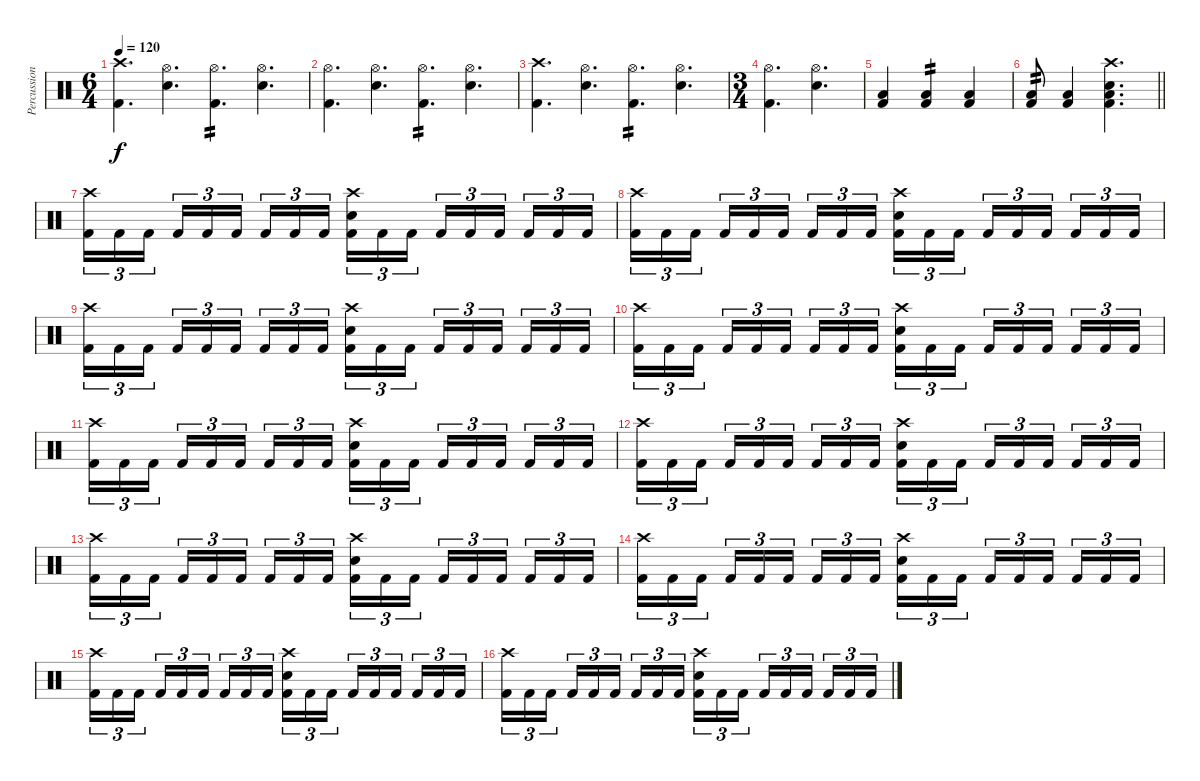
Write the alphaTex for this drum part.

\track ("Percussion" "Percussion") {instrument percussion}
\staff {score}
\articulation defaults
\ts (6 4)
\tempo 120
\clef neutral
\ks c
("Crash high (hit)" "Kick (hit) 2").4{d dy f} ("Hi-Hat (open)" "Electric Snare (hit)").4{d} ("Hi-Hat (open)" "Kick (hit) 2").4{d tp 2} ("Hi-Hat (open)" "Electric Snare (hit)").4{d} |
("Hi-Hat (open)" "Kick (hit) 2").4{d} ("Hi-Hat (open)" "Electric Snare (hit)").4{d} ("Hi-Hat (open)" "Kick (hit) 2").4{d tp 2} ("Hi-Hat (open)" "Electric Snare (hit)").4{d} |
("Crash high (hit)" "Kick (hit) 2").4{d} ("Hi-Hat (open)" "Electric Snare (hit)").4{d} ("Hi-Hat (open)" "Kick (hit) 2").4{d tp 2} ("Hi-Hat (open)" "Electric Snare (hit)").4{d} |
\ts (3 4)
("Hi-Hat (open)" "Kick (hit) 2").4{d} ("Hi-Hat (open)" "Electric Snare (hit)").4{d} |
("Low Floor Tom (hit)" "Kick (hit) 2").4 ("Low Floor Tom (hit)" "Kick (hit) 2").4{tp 2} ("Low Floor Tom (hit)" "Kick (hit) 2").4 |
\barLineRight lightlight
("Low Floor Tom (hit)" "Kick (hit) 2").8{tp 2} ("Low Floor Tom (hit)" "Kick (hit) 2").4 ("Crash high (hit)" "Low Floor Tom (hit)" "Electric Snare (hit)" "Kick (hit) 2").4{d} |
("Crash high (hit)" "Kick (hit) 2").16{tu (3 2)} "Kick (hit) 2".16{tu (3 2)} "Kick (hit) 2".16{tu (3 2) beam splitsecondary} "Kick (hit) 2".16{tu (3 2)} "Kick (hit) 2".16{tu (3 2)} "Kick (hit) 2".16{tu (3 2)} "Kick (hit) 2".16{tu (3 2)} "Kick (hit) 2".16{tu (3 2)} "Kick (hit) 2".16{tu (3 2) beam splitsecondary} ("Electric Snare (hit)" "Crash high (hit)" "Kick (hit) 2").16{tu (3 2)} "Kick (hit) 2".16{tu (3 2)} "Kick (hit) 2".16{tu (3 2)} "Kick (hit) 2".16{tu (3 2)} "Kick (hit) 2".16{tu (3 2)} "Kick (hit) 2".16{tu (3 2) beam splitsecondary} "Kick (hit) 2".16{tu (3 2)} "Kick (hit) 2".16{tu (3 2)} "Kick (hit) 2".16{tu (3 2)} |
("Crash high (hit)" "Kick (hit) 2").16{tu (3 2)} "Kick (hit) 2".16{tu (3 2)} "Kick (hit) 2".16{tu (3 2) beam splitsecondary} "Kick (hit) 2".16{tu (3 2)} "Kick (hit) 2".16{tu (3 2)} "Kick (hit) 2".16{tu (3 2)} "Kick (hit) 2".16{tu (3 2)} "Kick (hit) 2".16{tu (3 2)} "Kick (hit) 2".16{tu (3 2) beam splitsecondary} ("Electric Snare (hit)" "Crash high (hit)" "Kick (hit) 2").16{tu (3 2)} "Kick (hit) 2".16{tu (3 2)} "Kick (hit) 2".16{tu (3 2)} "Kick (hit) 2".16{tu (3 2)} "Kick (hit) 2".16{tu (3 2)} "Kick (hit) 2".16{tu (3 2) beam splitsecondary} "Kick (hit) 2".16{tu (3 2)} "Kick (hit) 2".16{tu (3 2)} "Kick (hit) 2".16{tu (3 2)} |
("Crash high (hit)" "Kick (hit) 2").16{tu (3 2)} "Kick (hit) 2".16{tu (3 2)} "Kick (hit) 2".16{tu (3 2) beam splitsecondary} "Kick (hit) 2".16{tu (3 2)} "Kick (hit) 2".16{tu (3 2)} "Kick (hit) 2".16{tu (3 2)} "Kick (hit) 2".16{tu (3 2)} "Kick (hit) 2".16{tu (3 2)} "Kick (hit) 2".16{tu (3 2) beam splitsecondary} ("Electric Snare (hit)" "Crash high (hit)" "Kick (hit) 2").16{tu (3 2)} "Kick (hit) 2".16{tu (3 2)} "Kick (hit) 2".16{tu (3 2)} "Kick (hit) 2".16{tu (3 2)} "Kick (hit) 2".16{tu (3 2)} "Kick (hit) 2".16{tu (3 2) beam splitsecondary} "Kick (hit) 2".16{tu (3 2)} "Kick (hit) 2".16{tu (3 2)} "Kick (hit) 2".16{tu (3 2)} |
("Crash high (hit)" "Kick (hit) 2").16{tu (3 2)} "Kick (hit) 2".16{tu (3 2)} "Kick (hit) 2".16{tu (3 2) beam splitsecondary} "Kick (hit) 2".16{tu (3 2)} "Kick (hit) 2".16{tu (3 2)} "Kick (hit) 2".16{tu (3 2)} "Kick (hit) 2".16{tu (3 2)} "Kick (hit) 2".16{tu (3 2)} "Kick (hit) 2".16{tu (3 2) beam splitsecondary} ("Electric Snare (hit)" "Crash high (hit)" "Kick (hit) 2").16{tu (3 2)} "Kick (hit) 2".16{tu (3 2)} "Kick (hit) 2".16{tu (3 2)} "Kick (hit) 2".16{tu (3 2)} "Kick (hit) 2".16{tu (3 2)} "Kick (hit) 2".16{tu (3 2) beam splitsecondary} "Kick (hit) 2".16{tu (3 2)} "Kick (hit) 2".16{tu (3 2)} "Kick (hit) 2".16{tu (3 2)} |
("Crash high (hit)" "Kick (hit) 2").16{tu (3 2)} "Kick (hit) 2".16{tu (3 2)} "Kick (hit) 2".16{tu (3 2) beam splitsecondary} "Kick (hit) 2".16{tu (3 2)} "Kick (hit) 2".16{tu (3 2)} "Kick (hit) 2".16{tu (3 2)} "Kick (hit) 2".16{tu (3 2)} "Kick (hit) 2".16{tu (3 2)} "Kick (hit) 2".16{tu (3 2) beam splitsecondary} ("Electric Snare (hit)" "Crash high (hit)" "Kick (hit) 2").16{tu (3 2)} "Kick (hit) 2".16{tu (3 2)} "Kick (hit) 2".16{tu (3 2)} "Kick (hit) 2".16{tu (3 2)} "Kick (hit) 2".16{tu (3 2)} "Kick (hit) 2".16{tu (3 2) beam splitsecondary} "Kick (hit) 2".16{tu (3 2)} "Kick (hit) 2".16{tu (3 2)} "Kick (hit) 2".16{tu (3 2)} |
("Crash high (hit)" "Kick (hit) 2").16{tu (3 2)} "Kick (hit) 2".16{tu (3 2)} "Kick (hit) 2".16{tu (3 2) beam splitsecondary} "Kick (hit) 2".16{tu (3 2)} "Kick (hit) 2".16{tu (3 2)} "Kick (hit) 2".16{tu (3 2)} "Kick (hit) 2".16{tu (3 2)} "Kick (hit) 2".16{tu (3 2)} "Kick (hit) 2".16{tu (3 2) beam splitsecondary} ("Electric Snare (hit)" "Crash high (hit)" "Kick (hit) 2").16{tu (3 2)} "Kick (hit) 2".16{tu (3 2)} "Kick (hit) 2".16{tu (3 2)} "Kick (hit) 2".16{tu (3 2)} "Kick (hit) 2".16{tu (3 2)} "Kick (hit) 2".16{tu (3 2) beam splitsecondary} "Kick (hit) 2".16{tu (3 2)} "Kick (hit) 2".16{tu (3 2)} "Kick (hit) 2".16{tu (3 2)} |
("Crash high (hit)" "Kick (hit) 2").16{tu (3 2)} "Kick (hit) 2".16{tu (3 2)} "Kick (hit) 2".16{tu (3 2) beam splitsecondary} "Kick (hit) 2".16{tu (3 2)} "Kick (hit) 2".16{tu (3 2)} "Kick (hit) 2".16{tu (3 2)} "Kick (hit) 2".16{tu (3 2)} "Kick (hit) 2".16{tu (3 2)} "Kick (hit) 2".16{tu (3 2) beam splitsecondary} ("Electric Snare (hit)" "Crash high (hit)" "Kick (hit) 2").16{tu (3 2)} "Kick (hit) 2".16{tu (3 2)} "Kick (hit) 2".16{tu (3 2)} "Kick (hit) 2".16{tu (3 2)} "Kick (hit) 2".16{tu (3 2)} "Kick (hit) 2".16{tu (3 2) beam splitsecondary} "Kick (hit) 2".16{tu (3 2)} "Kick (hit) 2".16{tu (3 2)} "Kick (hit) 2".16{tu (3 2)} |
("Crash high (hit)" "Kick (hit) 2").16{tu (3 2)} "Kick (hit) 2".16{tu (3 2)} "Kick (hit) 2".16{tu (3 2) beam splitsecondary} "Kick (hit) 2".16{tu (3 2)} "Kick (hit) 2".16{tu (3 2)} "Kick (hit) 2".16{tu (3 2)} "Kick (hit) 2".16{tu (3 2)} "Kick (hit) 2".16{tu (3 2)} "Kick (hit) 2".16{tu (3 2) beam splitsecondary} ("Electric Snare (hit)" "Crash high (hit)" "Kick (hit) 2").16{tu (3 2)} "Kick (hit) 2".16{tu (3 2)} "Kick (hit) 2".16{tu (3 2)} "Kick (hit) 2".16{tu (3 2)} "Kick (hit) 2".16{tu (3 2)} "Kick (hit) 2".16{tu (3 2) beam splitsecondary} "Kick (hit) 2".16{tu (3 2)} "Kick (hit) 2".16{tu (3 2)} "Kick (hit) 2".16{tu (3 2)} |
("Crash high (hit)" "Kick (hit) 2").16{tu (3 2)} "Kick (hit) 2".16{tu (3 2)} "Kick (hit) 2".16{tu (3 2) beam splitsecondary} "Kick (hit) 2".16{tu (3 2)} "Kick (hit) 2".16{tu (3 2)} "Kick (hit) 2".16{tu (3 2)} "Kick (hit) 2".16{tu (3 2)} "Kick (hit) 2".16{tu (3 2)} "Kick (hit) 2".16{tu (3 2) beam splitsecondary} ("Electric Snare (hit)" "Crash high (hit)" "Kick (hit) 2").16{tu (3 2)} "Kick (hit) 2".16{tu (3 2)} "Kick (hit) 2".16{tu (3 2)} "Kick (hit) 2".16{tu (3 2)} "Kick (hit) 2".16{tu (3 2)} "Kick (hit) 2".16{tu (3 2) beam splitsecondary} "Kick (hit) 2".16{tu (3 2)} "Kick (hit) 2".16{tu (3 2)} "Kick (hit) 2".16{tu (3 2)} |
("Crash high (hit)" "Kick (hit) 2").16{tu (3 2)} "Kick (hit) 2".16{tu (3 2)} "Kick (hit) 2".16{tu (3 2) beam splitsecondary} "Kick (hit) 2".16{tu (3 2)} "Kick (hit) 2".16{tu (3 2)} "Kick (hit) 2".16{tu (3 2)} "Kick (hit) 2".16{tu (3 2)} "Kick (hit) 2".16{tu (3 2)} "Kick (hit) 2".16{tu (3 2) beam splitsecondary} ("Electric Snare (hit)" "Crash high (hit)" "Kick (hit) 2").16{tu (3 2)} "Kick (hit) 2".16{tu (3 2)} "Kick (hit) 2".16{tu (3 2)} "Kick (hit) 2".16{tu (3 2)} "Kick (hit) 2".16{tu (3 2)} "Kick (hit) 2".16{tu (3 2) beam splitsecondary} "Kick (hit) 2".16{tu (3 2)} "Kick (hit) 2".16{tu (3 2)} "Kick (hit) 2".16{tu (3 2)}
